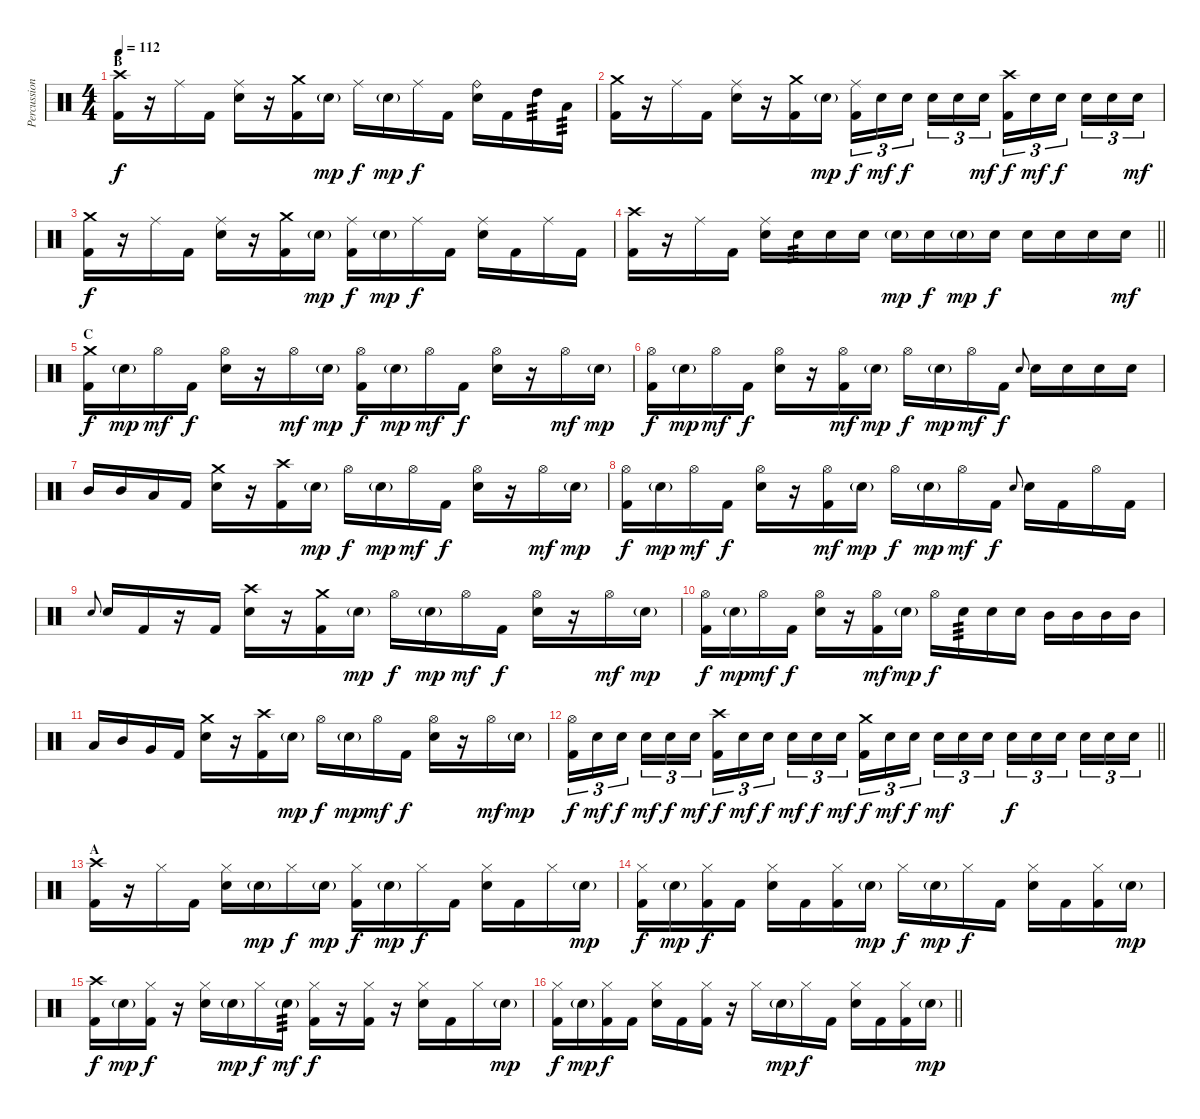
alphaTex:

\track ("Percussion" "Percussion") {instrument percussion}
\staff {score}
\articulation defaults
\ts (4 4)
\section ("" "B")
\tempo 112
\clef neutral
\ks c
("Crash high (hit)" "Kick (hit) 2").16{dy f} r.16 "Ride (middle)".16 "Kick (hit) 2".16 ("Ride (middle)" "Snare (hit) 2").16 r.16 ("Crash medium (hit)" "Kick (hit) 2").16 "Snare (hit) 2"{g}.16{dy mp} "Ride (middle)".16{dy f} "Snare (hit) 2"{g}.16{dy mp} "Ride (middle)".16{dy f} "Kick (hit) 2".16 ("Ride (bell)" "Snare (hit) 2").16 "Kick (hit) 2".16 "High Tom (hit)".16{tp 3} "Low Tom (hit)".16{tp 3} |
("Crash medium (hit)" "Kick (hit) 2").16 r.16 "Ride (middle)".16 "Kick (hit) 2".16 ("Ride (middle)" "Snare (hit) 2").16 r.16 ("Crash medium (hit)" "Kick (hit) 2").16 "Snare (hit) 2"{g}.16{dy mp} ("Ride (middle)" "Kick (hit) 2").16{tu (3 2) dy f} "Snare (hit) 2".16{tu (3 2) dy mf} "Snare (hit) 2".16{tu (3 2) dy f beam splitsecondary} "Snare (hit) 2".16{tu (3 2)} "Snare (hit) 2".16{tu (3 2)} "Snare (hit) 2".16{tu (3 2) dy mf} ("Crash high (hit)" "Kick (hit) 2").16{tu (3 2) dy f} "Snare (hit) 2".16{tu (3 2) dy mf} "Snare (hit) 2".16{tu (3 2) dy f beam splitsecondary} "Snare (hit) 2".16{tu (3 2)} "Snare (hit) 2".16{tu (3 2)} "Snare (hit) 2".16{tu (3 2) dy mf} |
("Crash medium (hit)" "Kick (hit) 2").16{dy f} r.16 "Ride (middle)".16 "Kick (hit) 2".16 ("Ride (middle)" "Snare (hit) 2").16 r.16 ("Crash medium (hit)" "Kick (hit) 2").16 "Snare (hit) 2"{g}.16{dy mp} ("Ride (middle)" "Kick (hit) 2").16{dy f} "Snare (hit) 2"{g}.16{dy mp} "Ride (middle)".16{dy f} "Kick (hit) 2".16 ("Ride (middle)" "Snare (hit) 2").16 "Kick (hit) 2".16 "Ride (middle)".16 "Kick (hit) 2".16 |
\barLineRight lightlight
("Crash high (hit)" "Kick (hit) 2").16 r.16 "Ride (middle)".16 "Kick (hit) 2".16 ("Ride (middle)" "Snare (hit) 2").16 "Snare (hit) 2".16{tp 3} "Snare (hit) 2".16 "Snare (hit) 2".16 "Snare (hit) 2"{g}.16{dy mp} "Snare (hit) 2".16{dy f} "Snare (hit) 2"{g}.16{dy mp} "Snare (hit) 2".16{dy f} "Snare (hit) 2".16 "Snare (hit) 2".16 "Snare (hit) 2".16 "Snare (hit) 2".16{dy mf} |
\section ("" "C")
("Crash medium (hit)" "Kick (hit) 2").16{dy f} "Snare (hit) 2"{g}.16{dy mp} "Hi-Hat (open)".16{dy mf} "Kick (hit) 2".16{dy f} ("Hi-Hat (open)" "Snare (hit) 2").16 r.16 "Hi-Hat (open)".16{dy mf} "Snare (hit) 2"{g}.16{dy mp} ("Hi-Hat (open)" "Kick (hit) 2").16{dy f} "Snare (hit) 2"{g}.16{dy mp} "Hi-Hat (open)".16{dy mf} "Kick (hit) 2".16{dy f} ("Hi-Hat (open)" "Snare (hit) 2").16 r.16 "Hi-Hat (open)".16{dy mf} "Snare (hit) 2"{g}.16{dy mp} |
("Hi-Hat (open)" "Kick (hit) 2").16{dy f} "Snare (hit) 2"{g}.16{dy mp} "Hi-Hat (open)".16{dy mf} "Kick (hit) 2".16{dy f} ("Hi-Hat (open)" "Snare (hit) 2").16 r.16 ("Hi-Hat (open)" "Kick (hit) 2").16{dy mf} "Snare (hit) 2"{g}.16{dy mp} "Hi-Hat (open)".16{dy f} "Snare (hit) 2"{g}.16{dy mp} "Hi-Hat (open)".16{dy mf} "Kick (hit) 2".16{dy f} "Snare (hit) 2".8{gr onbeat} "Snare (hit) 2".16 "Snare (hit) 2".16 "Snare (hit) 2".16 "Snare (hit) 2".16 |
"Mid Tom (hit)".16 "Mid Tom (hit)".16 "Low Tom (hit)".16 "Kick (hit) 2".16 ("Crash medium (hit)" "Snare (hit) 2").16 r.16 ("Crash high (hit)" "Kick (hit) 2").16 "Snare (hit) 2"{g}.16{dy mp} "Hi-Hat (open)".16{dy f} "Snare (hit) 2"{g}.16{dy mp} "Hi-Hat (open)".16{dy mf} "Kick (hit) 2".16{dy f} ("Hi-Hat (open)" "Snare (hit) 2").16 r.16 "Hi-Hat (open)".16{dy mf} "Snare (hit) 2"{g}.16{dy mp} |
("Hi-Hat (open)" "Kick (hit) 2").16{dy f} "Snare (hit) 2"{g}.16{dy mp} "Hi-Hat (open)".16{dy mf} "Kick (hit) 2".16{dy f} ("Hi-Hat (open)" "Snare (hit) 2").16 r.16 ("Hi-Hat (open)" "Kick (hit) 2").16{dy mf} "Snare (hit) 2"{g}.16{dy mp} "Hi-Hat (open)".16{dy f} "Snare (hit) 2"{g}.16{dy mp} "Hi-Hat (open)".16{dy mf} "Kick (hit) 2".16{dy f} "Snare (hit) 2".8{gr onbeat} "Snare (hit) 2".16 "Kick (hit) 2".16 "Hi-Hat (open)".16 "Kick (hit) 2".16 |
"Snare (hit) 2".8{gr onbeat} "Snare (hit) 2".16 "Kick (hit) 2".16 r.16 "Kick (hit) 2".16 ("Crash high (hit)" "Snare (hit) 2").16 r.16 ("Crash medium (hit)" "Kick (hit) 2").16 "Snare (hit) 2"{g}.16{dy mp} "Hi-Hat (open)".16{dy f} "Snare (hit) 2"{g}.16{dy mp} "Hi-Hat (open)".16{dy mf} "Kick (hit) 2".16{dy f} ("Hi-Hat (open)" "Snare (hit) 2").16 r.16 "Hi-Hat (open)".16{dy mf} "Snare (hit) 2"{g}.16{dy mp} |
("Hi-Hat (open)" "Kick (hit) 2").16{dy f} "Snare (hit) 2"{g}.16{dy mp} "Hi-Hat (open)".16{dy mf} "Kick (hit) 2".16{dy f} ("Hi-Hat (open)" "Snare (hit) 2").16 r.16 ("Hi-Hat (open)" "Kick (hit) 2").16{dy mf} "Snare (hit) 2"{g}.16{dy mp} "Hi-Hat (open)".16{dy f} "Snare (hit) 2".16{tp 3} "Snare (hit) 2".16 "Snare (hit) 2".16 "Mid Tom (hit)".16 "Mid Tom (hit)".16 "Mid Tom (hit)".16 "Mid Tom (hit)".16 |
"Low Tom (hit)".16 "Mid Tom (hit)".16 "Very Low Tom (hit)".16 "Kick (hit) 2".16 ("Crash medium (hit)" "Snare (hit) 2").16 r.16 ("Crash high (hit)" "Kick (hit) 2").16 "Snare (hit) 2"{g}.16{dy mp} "Hi-Hat (open)".16{dy f} "Snare (hit) 2"{g}.16{dy mp} "Hi-Hat (open)".16{dy mf} "Kick (hit) 2".16{dy f} ("Hi-Hat (open)" "Snare (hit) 2").16 r.16 "Hi-Hat (open)".16{dy mf} "Snare (hit) 2"{g}.16{dy mp} |
\barLineRight lightlight
("Hi-Hat (open)" "Kick (hit) 2").16{tu (3 2) dy f} "Snare (hit) 2".16{tu (3 2) dy mf} "Snare (hit) 2".16{tu (3 2) dy f beam splitsecondary} "Snare (hit) 2".16{tu (3 2) dy mf} "Snare (hit) 2".16{tu (3 2) dy f} "Snare (hit) 2".16{tu (3 2) dy mf} ("Crash high (hit)" "Kick (hit) 2").16{tu (3 2) dy f} "Snare (hit) 2".16{tu (3 2) dy mf} "Snare (hit) 2".16{tu (3 2) dy f beam splitsecondary} "Snare (hit) 2".16{tu (3 2) dy mf} "Snare (hit) 2".16{tu (3 2) dy f} "Snare (hit) 2".16{tu (3 2) dy mf} ("Crash medium (hit)" "Kick (hit) 2").16{tu (3 2) dy f} "Snare (hit) 2".16{tu (3 2) dy mf} "Snare (hit) 2".16{tu (3 2) dy f beam splitsecondary} "Snare (hit) 2".16{tu (3 2) dy mf} "Snare (hit) 2".16{tu (3 2)} "Snare (hit) 2".16{tu (3 2)} "Snare (hit) 2".16{tu (3 2) dy f} "Snare (hit) 2".16{tu (3 2)} "Snare (hit) 2".16{tu (3 2) beam splitsecondary} "Snare (hit) 2".16{tu (3 2)} "Snare (hit) 2".16{tu (3 2)} "Snare (hit) 2".16{tu (3 2)} |
\section ("" "A")
("Crash high (hit)" "Kick (hit) 2").16 r.16 "Hi-Hat (closed)".16 "Kick (hit) 2".16 ("Hi-Hat (closed)" "Snare (hit) 2").16 "Snare (hit) 2"{g}.16{dy mp} "Hi-Hat (closed)".16{dy f} "Snare (hit) 2"{g}.16{dy mp} ("Hi-Hat (closed)" "Kick (hit) 2").16{dy f} "Snare (hit) 2"{g}.16{dy mp} "Hi-Hat (closed)".16{dy f} "Kick (hit) 2".16 ("Hi-Hat (closed)" "Snare (hit) 2").16 "Kick (hit) 2".16 "Hi-Hat (closed)".16 "Snare (hit) 2"{g}.16{dy mp} |
("Hi-Hat (closed)" "Kick (hit) 2").16{dy f} "Snare (hit) 2"{g}.16{dy mp} ("Hi-Hat (closed)" "Kick (hit) 2").16{dy f} "Kick (hit) 2".16 ("Hi-Hat (closed)" "Snare (hit) 2").16 "Kick (hit) 2".16 ("Hi-Hat (closed)" "Kick (hit) 2").16 "Snare (hit) 2"{g}.16{dy mp} "Hi-Hat (closed)".16{dy f} "Snare (hit) 2"{g}.16{dy mp} "Hi-Hat (closed)".16{dy f} "Kick (hit) 2".16 ("Hi-Hat (closed)" "Snare (hit) 2").16 "Kick (hit) 2".16 ("Hi-Hat (closed)" "Kick (hit) 2").16 "Snare (hit) 2"{g}.16{dy mp} |
("Crash high (hit)" "Kick (hit) 2").16{dy f} "Snare (hit) 2"{g}.16{dy mp} ("Hi-Hat (closed)" "Kick (hit) 2").16{dy f} r.16 ("Hi-Hat (closed)" "Snare (hit) 2").16 "Snare (hit) 2"{g}.16{dy mp} "Hi-Hat (closed)".16{dy f} "Snare (hit) 2"{g}.16{tp 3 dy mf} ("Hi-Hat (closed)" "Kick (hit) 2").16{dy f} r.16 ("Hi-Hat (closed)" "Kick (hit) 2").16 r.16 ("Hi-Hat (closed)" "Snare (hit) 2").16 "Kick (hit) 2".16 "Hi-Hat (closed)".16 "Snare (hit) 2"{g}.16{dy mp} |
\barLineRight lightlight
("Hi-Hat (closed)" "Kick (hit) 2").16{dy f} "Snare (hit) 2"{g}.16{dy mp} ("Hi-Hat (closed)" "Kick (hit) 2").16{dy f} "Kick (hit) 2".16 ("Hi-Hat (closed)" "Snare (hit) 2").16 "Kick (hit) 2".16 ("Hi-Hat (closed)" "Kick (hit) 2").16 r.16 "Hi-Hat (closed)".16 "Snare (hit) 2"{g}.16{dy mp} "Hi-Hat (closed)".16{dy f} "Kick (hit) 2".16 ("Hi-Hat (closed)" "Snare (hit) 2").16 "Kick (hit) 2".16 ("Hi-Hat (closed)" "Kick (hit) 2").16 "Snare (hit) 2"{g}.16{dy mp}
